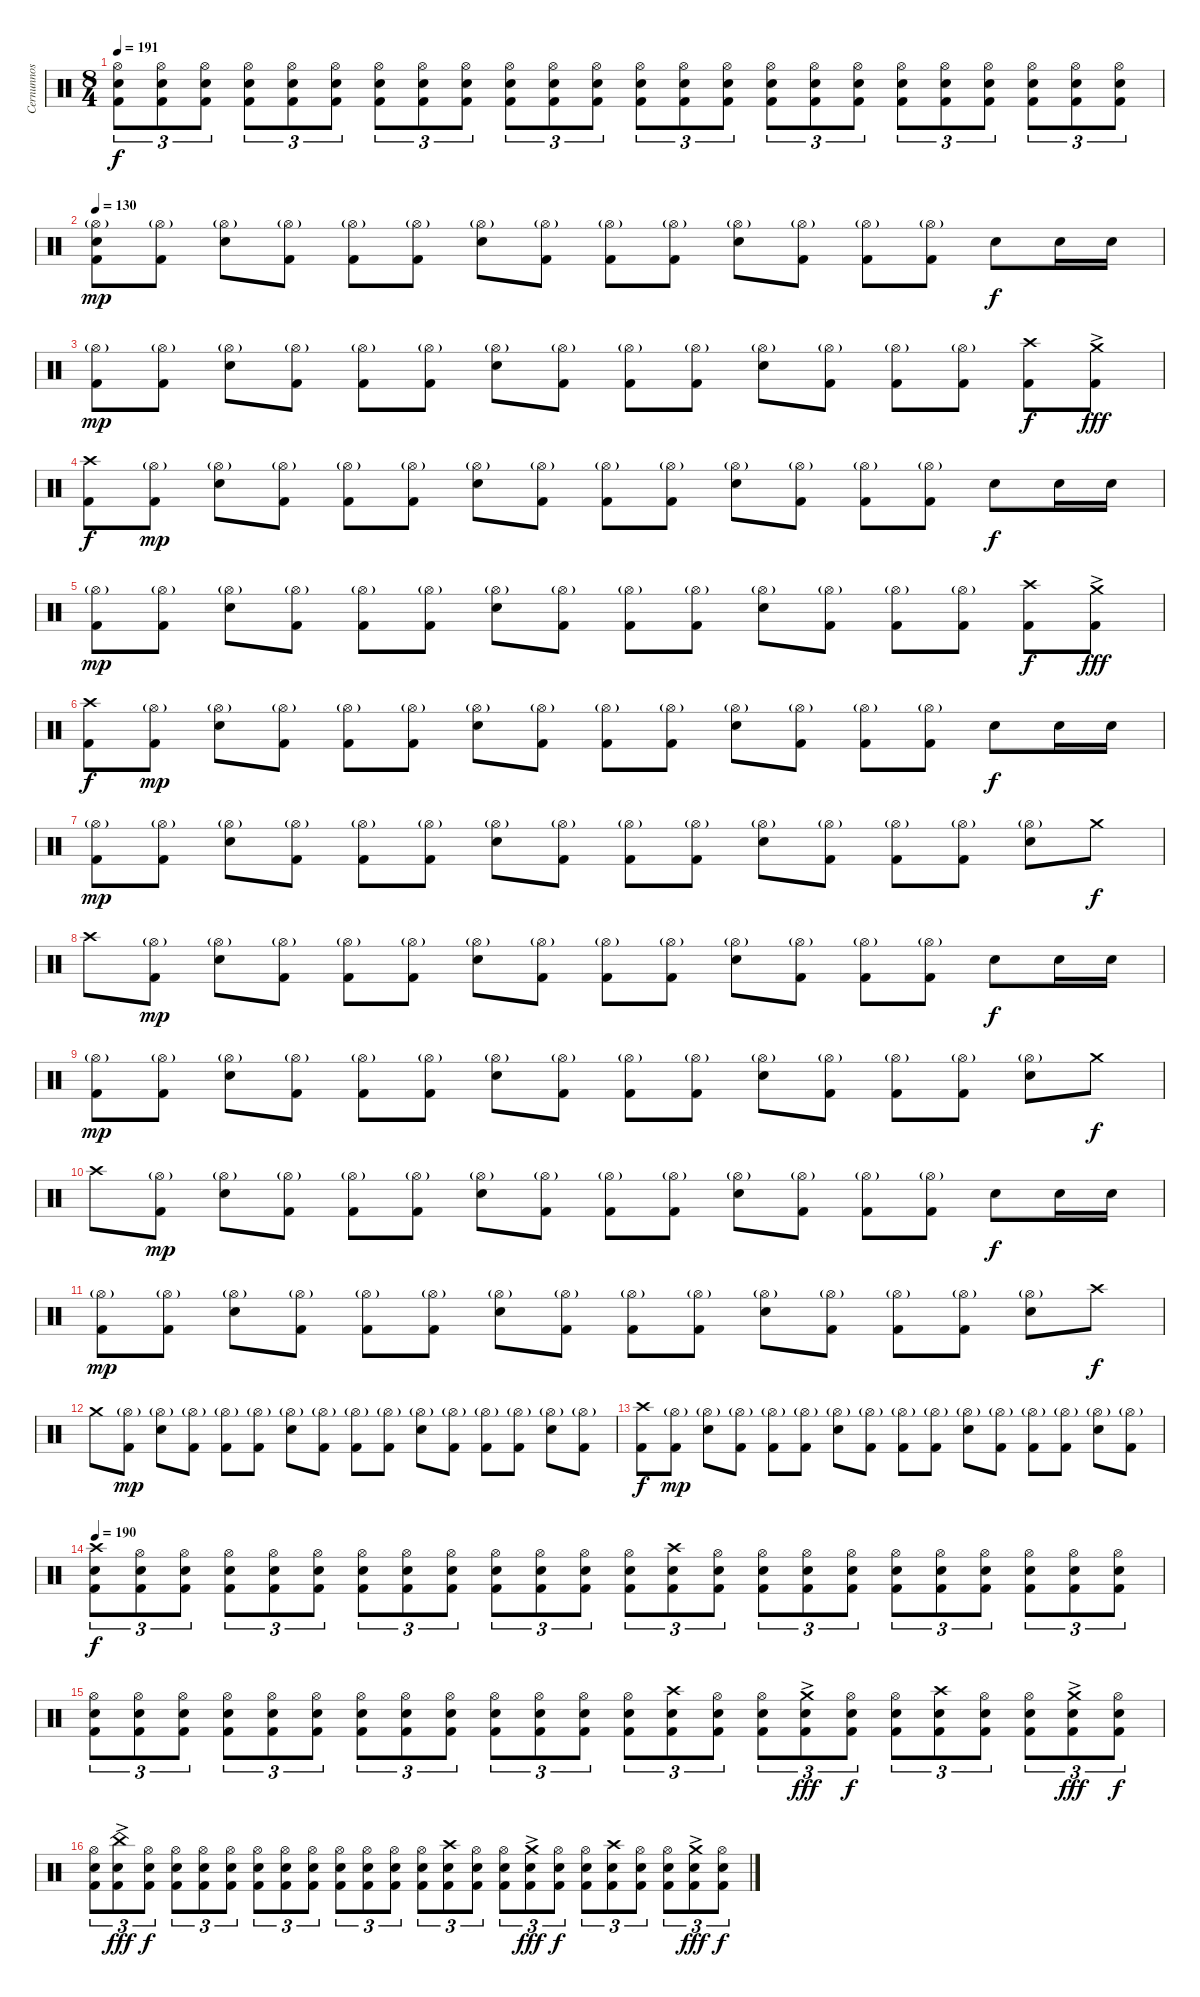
\track ("Cernunnos (in memory)" "Cernunnos ") {instrument percussion}
\staff {score}
\articulation defaults
\ts (8 4)
\tempo 191
\clef neutral
\ks c
("Hi-Hat (open)" "Electric Snare (hit)" "Kick (hit) 2").8{tu (3 2) dy f} ("Hi-Hat (open)" "Electric Snare (hit)" "Kick (hit) 2").8{tu (3 2)} ("Hi-Hat (open)" "Electric Snare (hit)" "Kick (hit) 2").8{tu (3 2)} ("Hi-Hat (open)" "Electric Snare (hit)" "Kick (hit) 2").8{tu (3 2)} ("Hi-Hat (open)" "Electric Snare (hit)" "Kick (hit) 2").8{tu (3 2)} ("Hi-Hat (open)" "Electric Snare (hit)" "Kick (hit) 2").8{tu (3 2)} ("Hi-Hat (open)" "Electric Snare (hit)" "Kick (hit) 2").8{tu (3 2)} ("Hi-Hat (open)" "Electric Snare (hit)" "Kick (hit) 2").8{tu (3 2)} ("Hi-Hat (open)" "Electric Snare (hit)" "Kick (hit) 2").8{tu (3 2)} ("Hi-Hat (open)" "Electric Snare (hit)" "Kick (hit) 2").8{tu (3 2)} ("Hi-Hat (open)" "Electric Snare (hit)" "Kick (hit) 2").8{tu (3 2)} ("Hi-Hat (open)" "Electric Snare (hit)" "Kick (hit) 2").8{tu (3 2)} ("Hi-Hat (open)" "Electric Snare (hit)" "Kick (hit) 2").8{tu (3 2)} ("Hi-Hat (open)" "Electric Snare (hit)" "Kick (hit) 2").8{tu (3 2)} ("Hi-Hat (open)" "Electric Snare (hit)" "Kick (hit) 2").8{tu (3 2)} ("Hi-Hat (open)" "Electric Snare (hit)" "Kick (hit) 2").8{tu (3 2)} ("Hi-Hat (open)" "Electric Snare (hit)" "Kick (hit) 2").8{tu (3 2)} ("Hi-Hat (open)" "Electric Snare (hit)" "Kick (hit) 2").8{tu (3 2)} ("Hi-Hat (open)" "Electric Snare (hit)" "Kick (hit) 2").8{tu (3 2)} ("Hi-Hat (open)" "Electric Snare (hit)" "Kick (hit) 2").8{tu (3 2)} ("Hi-Hat (open)" "Electric Snare (hit)" "Kick (hit) 2").8{tu (3 2)} ("Hi-Hat (open)" "Electric Snare (hit)" "Kick (hit) 2").8{tu (3 2)} ("Hi-Hat (open)" "Electric Snare (hit)" "Kick (hit) 2").8{tu (3 2)} ("Hi-Hat (open)" "Electric Snare (hit)" "Kick (hit) 2").8{tu (3 2)} |
\tempo 130
("Hi-Hat (open)"{g} "Electric Snare (hit)" "Kick (hit) 2").8{dy mp} ("Hi-Hat (open)"{g} "Kick (hit) 2").8 ("Hi-Hat (open)"{g} "Electric Snare (hit)").8 ("Hi-Hat (open)"{g} "Kick (hit) 2").8 ("Hi-Hat (open)"{g} "Kick (hit) 2").8 ("Hi-Hat (open)"{g} "Kick (hit) 2").8 ("Hi-Hat (open)"{g} "Electric Snare (hit)").8 ("Hi-Hat (open)"{g} "Kick (hit) 2").8 ("Hi-Hat (open)"{g} "Kick (hit) 2").8 ("Hi-Hat (open)"{g} "Kick (hit) 2").8 ("Hi-Hat (open)"{g} "Electric Snare (hit)").8 ("Hi-Hat (open)"{g} "Kick (hit) 2").8 ("Hi-Hat (open)"{g} "Kick (hit) 2").8 ("Hi-Hat (open)"{g} "Kick (hit) 2").8 "Electric Snare (hit)".8{dy f} "Electric Snare (hit)".16 "Electric Snare (hit)".16 |
("Hi-Hat (open)"{g} "Kick (hit) 2").8{dy mp} ("Hi-Hat (open)"{g} "Kick (hit) 2").8 ("Hi-Hat (open)"{g} "Electric Snare (hit)").8 ("Hi-Hat (open)"{g} "Kick (hit) 2").8 ("Hi-Hat (open)"{g} "Kick (hit) 2").8 ("Hi-Hat (open)"{g} "Kick (hit) 2").8 ("Hi-Hat (open)"{g} "Electric Snare (hit)").8 ("Hi-Hat (open)"{g} "Kick (hit) 2").8 ("Hi-Hat (open)"{g} "Kick (hit) 2").8 ("Hi-Hat (open)"{g} "Kick (hit) 2").8 ("Hi-Hat (open)"{g} "Electric Snare (hit)").8 ("Hi-Hat (open)"{g} "Kick (hit) 2").8 ("Hi-Hat (open)"{g} "Kick (hit) 2").8 ("Hi-Hat (open)"{g} "Kick (hit) 2").8 ("Crash high (hit)" "Kick (hit) 2").8{dy f} ("Crash medium (hit)"{ac} "Kick (hit) 2").8{dy fff} |
("Crash high (hit)" "Kick (hit) 2").8{dy f} ("Hi-Hat (open)"{g} "Kick (hit) 2").8{dy mp} ("Hi-Hat (open)"{g} "Electric Snare (hit)").8 ("Hi-Hat (open)"{g} "Kick (hit) 2").8 ("Hi-Hat (open)"{g} "Kick (hit) 2").8 ("Hi-Hat (open)"{g} "Kick (hit) 2").8 ("Hi-Hat (open)"{g} "Electric Snare (hit)").8 ("Hi-Hat (open)"{g} "Kick (hit) 2").8 ("Hi-Hat (open)"{g} "Kick (hit) 2").8 ("Hi-Hat (open)"{g} "Kick (hit) 2").8 ("Hi-Hat (open)"{g} "Electric Snare (hit)").8 ("Hi-Hat (open)"{g} "Kick (hit) 2").8 ("Hi-Hat (open)"{g} "Kick (hit) 2").8 ("Hi-Hat (open)"{g} "Kick (hit) 2").8 "Electric Snare (hit)".8{dy f} "Electric Snare (hit)".16 "Electric Snare (hit)".16 |
("Hi-Hat (open)"{g} "Kick (hit) 2").8{dy mp} ("Hi-Hat (open)"{g} "Kick (hit) 2").8 ("Hi-Hat (open)"{g} "Electric Snare (hit)").8 ("Hi-Hat (open)"{g} "Kick (hit) 2").8 ("Hi-Hat (open)"{g} "Kick (hit) 2").8 ("Hi-Hat (open)"{g} "Kick (hit) 2").8 ("Hi-Hat (open)"{g} "Electric Snare (hit)").8 ("Hi-Hat (open)"{g} "Kick (hit) 2").8 ("Hi-Hat (open)"{g} "Kick (hit) 2").8 ("Hi-Hat (open)"{g} "Kick (hit) 2").8 ("Hi-Hat (open)"{g} "Electric Snare (hit)").8 ("Hi-Hat (open)"{g} "Kick (hit) 2").8 ("Hi-Hat (open)"{g} "Kick (hit) 2").8 ("Hi-Hat (open)"{g} "Kick (hit) 2").8 ("Crash high (hit)" "Kick (hit) 2").8{dy f} ("Crash medium (hit)"{ac} "Kick (hit) 2").8{dy fff} |
("Crash high (hit)" "Kick (hit) 2").8{dy f} ("Hi-Hat (open)"{g} "Kick (hit) 2").8{dy mp} ("Hi-Hat (open)"{g} "Electric Snare (hit)").8 ("Hi-Hat (open)"{g} "Kick (hit) 2").8 ("Hi-Hat (open)"{g} "Kick (hit) 2").8 ("Hi-Hat (open)"{g} "Kick (hit) 2").8 ("Hi-Hat (open)"{g} "Electric Snare (hit)").8 ("Hi-Hat (open)"{g} "Kick (hit) 2").8 ("Hi-Hat (open)"{g} "Kick (hit) 2").8 ("Hi-Hat (open)"{g} "Kick (hit) 2").8 ("Hi-Hat (open)"{g} "Electric Snare (hit)").8 ("Hi-Hat (open)"{g} "Kick (hit) 2").8 ("Hi-Hat (open)"{g} "Kick (hit) 2").8 ("Hi-Hat (open)"{g} "Kick (hit) 2").8 "Electric Snare (hit)".8{dy f} "Electric Snare (hit)".16 "Electric Snare (hit)".16 |
("Hi-Hat (open)"{g} "Kick (hit) 2").8{dy mp} ("Hi-Hat (open)"{g} "Kick (hit) 2").8 ("Hi-Hat (open)"{g} "Electric Snare (hit)").8 ("Hi-Hat (open)"{g} "Kick (hit) 2").8 ("Hi-Hat (open)"{g} "Kick (hit) 2").8 ("Hi-Hat (open)"{g} "Kick (hit) 2").8 ("Hi-Hat (open)"{g} "Electric Snare (hit)").8 ("Hi-Hat (open)"{g} "Kick (hit) 2").8 ("Hi-Hat (open)"{g} "Kick (hit) 2").8 ("Hi-Hat (open)"{g} "Kick (hit) 2").8 ("Hi-Hat (open)"{g} "Electric Snare (hit)").8 ("Hi-Hat (open)"{g} "Kick (hit) 2").8 ("Hi-Hat (open)"{g} "Kick (hit) 2").8 ("Hi-Hat (open)"{g} "Kick (hit) 2").8 ("Hi-Hat (open)"{g} "Electric Snare (hit)").8 "Crash medium (hit)".8{dy f} |
"Crash high (hit)".8 ("Hi-Hat (open)"{g} "Kick (hit) 2").8{dy mp} ("Hi-Hat (open)"{g} "Electric Snare (hit)").8 ("Hi-Hat (open)"{g} "Kick (hit) 2").8 ("Hi-Hat (open)"{g} "Kick (hit) 2").8 ("Hi-Hat (open)"{g} "Kick (hit) 2").8 ("Hi-Hat (open)"{g} "Electric Snare (hit)").8 ("Hi-Hat (open)"{g} "Kick (hit) 2").8 ("Hi-Hat (open)"{g} "Kick (hit) 2").8 ("Hi-Hat (open)"{g} "Kick (hit) 2").8 ("Hi-Hat (open)"{g} "Electric Snare (hit)").8 ("Hi-Hat (open)"{g} "Kick (hit) 2").8 ("Hi-Hat (open)"{g} "Kick (hit) 2").8 ("Hi-Hat (open)"{g} "Kick (hit) 2").8 "Electric Snare (hit)".8{dy f} "Electric Snare (hit)".16 "Electric Snare (hit)".16 |
("Hi-Hat (open)"{g} "Kick (hit) 2").8{dy mp} ("Hi-Hat (open)"{g} "Kick (hit) 2").8 ("Hi-Hat (open)"{g} "Electric Snare (hit)").8 ("Hi-Hat (open)"{g} "Kick (hit) 2").8 ("Hi-Hat (open)"{g} "Kick (hit) 2").8 ("Hi-Hat (open)"{g} "Kick (hit) 2").8 ("Hi-Hat (open)"{g} "Electric Snare (hit)").8 ("Hi-Hat (open)"{g} "Kick (hit) 2").8 ("Hi-Hat (open)"{g} "Kick (hit) 2").8 ("Hi-Hat (open)"{g} "Kick (hit) 2").8 ("Hi-Hat (open)"{g} "Electric Snare (hit)").8 ("Hi-Hat (open)"{g} "Kick (hit) 2").8 ("Hi-Hat (open)"{g} "Kick (hit) 2").8 ("Hi-Hat (open)"{g} "Kick (hit) 2").8 ("Hi-Hat (open)"{g} "Electric Snare (hit)").8 "Crash medium (hit)".8{dy f} |
"Crash high (hit)".8 ("Hi-Hat (open)"{g} "Kick (hit) 2").8{dy mp} ("Hi-Hat (open)"{g} "Electric Snare (hit)").8 ("Hi-Hat (open)"{g} "Kick (hit) 2").8 ("Hi-Hat (open)"{g} "Kick (hit) 2").8 ("Hi-Hat (open)"{g} "Kick (hit) 2").8 ("Hi-Hat (open)"{g} "Electric Snare (hit)").8 ("Hi-Hat (open)"{g} "Kick (hit) 2").8 ("Hi-Hat (open)"{g} "Kick (hit) 2").8 ("Hi-Hat (open)"{g} "Kick (hit) 2").8 ("Hi-Hat (open)"{g} "Electric Snare (hit)").8 ("Hi-Hat (open)"{g} "Kick (hit) 2").8 ("Hi-Hat (open)"{g} "Kick (hit) 2").8 ("Hi-Hat (open)"{g} "Kick (hit) 2").8 "Electric Snare (hit)".8{dy f} "Electric Snare (hit)".16 "Electric Snare (hit)".16 |
("Hi-Hat (open)"{g} "Kick (hit) 2").8{dy mp} ("Hi-Hat (open)"{g} "Kick (hit) 2").8 ("Hi-Hat (open)"{g} "Electric Snare (hit)").8 ("Hi-Hat (open)"{g} "Kick (hit) 2").8 ("Hi-Hat (open)"{g} "Kick (hit) 2").8 ("Hi-Hat (open)"{g} "Kick (hit) 2").8 ("Hi-Hat (open)"{g} "Electric Snare (hit)").8 ("Hi-Hat (open)"{g} "Kick (hit) 2").8 ("Hi-Hat (open)"{g} "Kick (hit) 2").8 ("Hi-Hat (open)"{g} "Kick (hit) 2").8 ("Hi-Hat (open)"{g} "Electric Snare (hit)").8 ("Hi-Hat (open)"{g} "Kick (hit) 2").8 ("Hi-Hat (open)"{g} "Kick (hit) 2").8 ("Hi-Hat (open)"{g} "Kick (hit) 2").8 ("Hi-Hat (open)"{g} "Electric Snare (hit)").8 "Crash high (hit)".8{dy f} |
"Crash medium (hit)".8 ("Hi-Hat (open)"{g} "Kick (hit) 2").8{dy mp} ("Hi-Hat (open)"{g} "Electric Snare (hit)").8 ("Hi-Hat (open)"{g} "Kick (hit) 2").8 ("Hi-Hat (open)"{g} "Kick (hit) 2").8 ("Hi-Hat (open)"{g} "Kick (hit) 2").8 ("Hi-Hat (open)"{g} "Electric Snare (hit)").8 ("Hi-Hat (open)"{g} "Kick (hit) 2").8 ("Hi-Hat (open)"{g} "Kick (hit) 2").8 ("Hi-Hat (open)"{g} "Kick (hit) 2").8 ("Hi-Hat (open)"{g} "Electric Snare (hit)").8 ("Hi-Hat (open)"{g} "Kick (hit) 2").8 ("Hi-Hat (open)"{g} "Kick (hit) 2").8 ("Hi-Hat (open)"{g} "Kick (hit) 2").8 ("Hi-Hat (open)"{g} "Electric Snare (hit)").8 ("Hi-Hat (open)"{g} "Kick (hit) 2").8 |
("Crash high (hit)" "Kick (hit) 2").8{dy f} ("Hi-Hat (open)"{g} "Kick (hit) 2").8{dy mp} ("Hi-Hat (open)"{g} "Electric Snare (hit)").8 ("Hi-Hat (open)"{g} "Kick (hit) 2").8 ("Hi-Hat (open)"{g} "Kick (hit) 2").8 ("Hi-Hat (open)"{g} "Kick (hit) 2").8 ("Hi-Hat (open)"{g} "Electric Snare (hit)").8 ("Hi-Hat (open)"{g} "Kick (hit) 2").8 ("Hi-Hat (open)"{g} "Kick (hit) 2").8 ("Hi-Hat (open)"{g} "Kick (hit) 2").8 ("Hi-Hat (open)"{g} "Electric Snare (hit)").8 ("Hi-Hat (open)"{g} "Kick (hit) 2").8 ("Hi-Hat (open)"{g} "Kick (hit) 2").8 ("Hi-Hat (open)"{g} "Kick (hit) 2").8 ("Hi-Hat (open)"{g} "Electric Snare (hit)").8 ("Hi-Hat (open)"{g} "Kick (hit) 2").8 |
\tempo 190
("Crash high (hit)" "Electric Snare (hit)" "Kick (hit) 2").8{tu (3 2) dy f} ("Hi-Hat (open)" "Electric Snare (hit)" "Kick (hit) 2").8{tu (3 2)} ("Hi-Hat (open)" "Electric Snare (hit)" "Kick (hit) 2").8{tu (3 2)} ("Hi-Hat (open)" "Electric Snare (hit)" "Kick (hit) 2").8{tu (3 2)} ("Hi-Hat (open)" "Electric Snare (hit)" "Kick (hit) 2").8{tu (3 2)} ("Hi-Hat (open)" "Electric Snare (hit)" "Kick (hit) 2").8{tu (3 2)} ("Hi-Hat (open)" "Electric Snare (hit)" "Kick (hit) 2").8{tu (3 2)} ("Hi-Hat (open)" "Electric Snare (hit)" "Kick (hit) 2").8{tu (3 2)} ("Hi-Hat (open)" "Electric Snare (hit)" "Kick (hit) 2").8{tu (3 2)} ("Hi-Hat (open)" "Electric Snare (hit)" "Kick (hit) 2").8{tu (3 2)} ("Hi-Hat (open)" "Electric Snare (hit)" "Kick (hit) 2").8{tu (3 2)} ("Hi-Hat (open)" "Electric Snare (hit)" "Kick (hit) 2").8{tu (3 2)} ("Hi-Hat (open)" "Electric Snare (hit)" "Kick (hit) 2").8{tu (3 2)} ("Crash high (hit)" "Electric Snare (hit)" "Kick (hit) 2").8{tu (3 2)} ("Hi-Hat (open)" "Electric Snare (hit)" "Kick (hit) 2").8{tu (3 2)} ("Hi-Hat (open)" "Electric Snare (hit)" "Kick (hit) 2").8{tu (3 2)} ("Hi-Hat (open)" "Electric Snare (hit)" "Kick (hit) 2").8{tu (3 2)} ("Hi-Hat (open)" "Electric Snare (hit)" "Kick (hit) 2").8{tu (3 2)} ("Hi-Hat (open)" "Electric Snare (hit)" "Kick (hit) 2").8{tu (3 2)} ("Hi-Hat (open)" "Electric Snare (hit)" "Kick (hit) 2").8{tu (3 2)} ("Hi-Hat (open)" "Electric Snare (hit)" "Kick (hit) 2").8{tu (3 2)} ("Hi-Hat (open)" "Electric Snare (hit)" "Kick (hit) 2").8{tu (3 2)} ("Hi-Hat (open)" "Electric Snare (hit)" "Kick (hit) 2").8{tu (3 2)} ("Hi-Hat (open)" "Electric Snare (hit)" "Kick (hit) 2").8{tu (3 2)} |
("Hi-Hat (open)" "Electric Snare (hit)" "Kick (hit) 2").8{tu (3 2)} ("Hi-Hat (open)" "Electric Snare (hit)" "Kick (hit) 2").8{tu (3 2)} ("Hi-Hat (open)" "Electric Snare (hit)" "Kick (hit) 2").8{tu (3 2)} ("Hi-Hat (open)" "Electric Snare (hit)" "Kick (hit) 2").8{tu (3 2)} ("Hi-Hat (open)" "Electric Snare (hit)" "Kick (hit) 2").8{tu (3 2)} ("Hi-Hat (open)" "Electric Snare (hit)" "Kick (hit) 2").8{tu (3 2)} ("Hi-Hat (open)" "Electric Snare (hit)" "Kick (hit) 2").8{tu (3 2)} ("Hi-Hat (open)" "Electric Snare (hit)" "Kick (hit) 2").8{tu (3 2)} ("Hi-Hat (open)" "Electric Snare (hit)" "Kick (hit) 2").8{tu (3 2)} ("Hi-Hat (open)" "Electric Snare (hit)" "Kick (hit) 2").8{tu (3 2)} ("Hi-Hat (open)" "Electric Snare (hit)" "Kick (hit) 2").8{tu (3 2)} ("Hi-Hat (open)" "Electric Snare (hit)" "Kick (hit) 2").8{tu (3 2)} ("Hi-Hat (open)" "Electric Snare (hit)" "Kick (hit) 2").8{tu (3 2)} ("Crash high (hit)" "Electric Snare (hit)" "Kick (hit) 2").8{tu (3 2)} ("Hi-Hat (open)" "Electric Snare (hit)" "Kick (hit) 2").8{tu (3 2)} ("Hi-Hat (open)" "Electric Snare (hit)" "Kick (hit) 2").8{tu (3 2)} ("Crash medium (hit)"{ac} "Electric Snare (hit)" "Kick (hit) 2").8{tu (3 2) dy fff} ("Hi-Hat (open)" "Electric Snare (hit)" "Kick (hit) 2").8{tu (3 2) dy f} ("Hi-Hat (open)" "Electric Snare (hit)" "Kick (hit) 2").8{tu (3 2)} ("Crash high (hit)" "Electric Snare (hit)" "Kick (hit) 2").8{tu (3 2)} ("Hi-Hat (open)" "Electric Snare (hit)" "Kick (hit) 2").8{tu (3 2)} ("Hi-Hat (open)" "Electric Snare (hit)" "Kick (hit) 2").8{tu (3 2)} ("Crash medium (hit)"{ac} "Electric Snare (hit)" "Kick (hit) 2").8{tu (3 2) dy fff} ("Hi-Hat (open)" "Electric Snare (hit)" "Kick (hit) 2").8{tu (3 2) dy f} |
("Hi-Hat (open)" "Electric Snare (hit)" "Kick (hit) 2").8{tu (3 2)} ("China (hit)"{ac} "Electric Snare (hit)" "Kick (hit) 2").8{tu (3 2) dy fff} ("Hi-Hat (open)" "Electric Snare (hit)" "Kick (hit) 2").8{tu (3 2) dy f} ("Hi-Hat (open)" "Electric Snare (hit)" "Kick (hit) 2").8{tu (3 2)} ("Hi-Hat (open)" "Electric Snare (hit)" "Kick (hit) 2").8{tu (3 2)} ("Hi-Hat (open)" "Electric Snare (hit)" "Kick (hit) 2").8{tu (3 2)} ("Hi-Hat (open)" "Electric Snare (hit)" "Kick (hit) 2").8{tu (3 2)} ("Hi-Hat (open)" "Electric Snare (hit)" "Kick (hit) 2").8{tu (3 2)} ("Hi-Hat (open)" "Electric Snare (hit)" "Kick (hit) 2").8{tu (3 2)} ("Hi-Hat (open)" "Electric Snare (hit)" "Kick (hit) 2").8{tu (3 2)} ("Hi-Hat (open)" "Electric Snare (hit)" "Kick (hit) 2").8{tu (3 2)} ("Hi-Hat (open)" "Electric Snare (hit)" "Kick (hit) 2").8{tu (3 2)} ("Hi-Hat (open)" "Electric Snare (hit)" "Kick (hit) 2").8{tu (3 2)} ("Crash high (hit)" "Electric Snare (hit)" "Kick (hit) 2").8{tu (3 2)} ("Hi-Hat (open)" "Electric Snare (hit)" "Kick (hit) 2").8{tu (3 2)} ("Hi-Hat (open)" "Electric Snare (hit)" "Kick (hit) 2").8{tu (3 2)} ("Crash medium (hit)"{ac} "Electric Snare (hit)" "Kick (hit) 2").8{tu (3 2) dy fff} ("Hi-Hat (open)" "Electric Snare (hit)" "Kick (hit) 2").8{tu (3 2) dy f} ("Hi-Hat (open)" "Electric Snare (hit)" "Kick (hit) 2").8{tu (3 2)} ("Crash high (hit)" "Electric Snare (hit)" "Kick (hit) 2").8{tu (3 2)} ("Hi-Hat (open)" "Electric Snare (hit)" "Kick (hit) 2").8{tu (3 2)} ("Hi-Hat (open)" "Electric Snare (hit)" "Kick (hit) 2").8{tu (3 2)} ("Crash medium (hit)"{ac} "Electric Snare (hit)" "Kick (hit) 2").8{tu (3 2) dy fff} ("Hi-Hat (open)" "Electric Snare (hit)" "Kick (hit) 2").8{tu (3 2) dy f}
